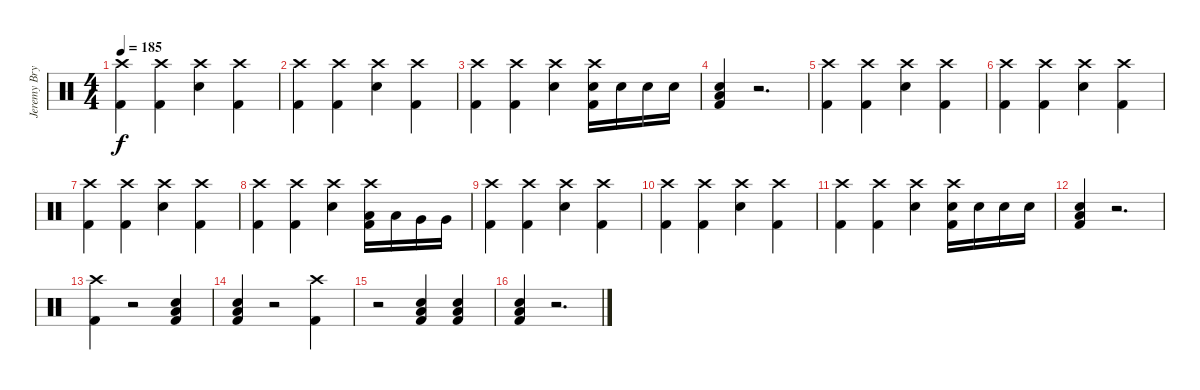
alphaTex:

\track ("Jeremy Bryan - Drums" "Jeremy Bry") {instrument percussion}
\staff {score}
\articulation defaults
\ts (4 4)
\tempo 185
\clef neutral
\ks c
("Crash high (hit)" "Kick (hit) 2").4{dy f} ("Crash high (hit)" "Kick (hit) 2").4 ("Crash high (hit)" "Electric Snare (hit)").4 ("Crash high (hit)" "Kick (hit) 2").4 |
("Crash high (hit)" "Kick (hit) 2").4 ("Crash high (hit)" "Kick (hit) 2").4 ("Crash high (hit)" "Electric Snare (hit)").4 ("Crash high (hit)" "Kick (hit) 2").4 |
("Crash high (hit)" "Kick (hit) 2").4 ("Crash high (hit)" "Kick (hit) 2").4 ("Crash high (hit)" "Electric Snare (hit)").4 ("Crash high (hit)" "Electric Snare (hit)" "Kick (hit) 2").16 "Electric Snare (hit)".16 "Electric Snare (hit)".16 "Electric Snare (hit)".16 |
("Low Floor Tom (hit)" "Electric Snare (hit)" "Kick (hit) 2").4 r.2{d} |
("Crash high (hit)" "Kick (hit) 2").4 ("Crash high (hit)" "Kick (hit) 2").4 ("Crash high (hit)" "Electric Snare (hit)").4 ("Crash high (hit)" "Kick (hit) 2").4 |
("Crash high (hit)" "Kick (hit) 2").4 ("Crash high (hit)" "Kick (hit) 2").4 ("Crash high (hit)" "Electric Snare (hit)").4 ("Crash high (hit)" "Kick (hit) 2").4 |
("Crash high (hit)" "Kick (hit) 2").4 ("Crash high (hit)" "Kick (hit) 2").4 ("Crash high (hit)" "Electric Snare (hit)").4 ("Crash high (hit)" "Kick (hit) 2").4 |
("Crash high (hit)" "Kick (hit) 2").4 ("Crash high (hit)" "Kick (hit) 2").4 ("Crash high (hit)" "Electric Snare (hit)").4 ("Crash high (hit)" "Low Tom (hit)" "Kick (hit) 2").16 "Low Tom (hit)".16 "Very Low Tom (hit)".16 "Very Low Tom (hit)".16 |
("Crash high (hit)" "Kick (hit) 2").4 ("Crash high (hit)" "Kick (hit) 2").4 ("Crash high (hit)" "Electric Snare (hit)").4 ("Crash high (hit)" "Kick (hit) 2").4 |
("Crash high (hit)" "Kick (hit) 2").4 ("Crash high (hit)" "Kick (hit) 2").4 ("Crash high (hit)" "Electric Snare (hit)").4 ("Crash high (hit)" "Kick (hit) 2").4 |
("Crash high (hit)" "Kick (hit) 2").4 ("Crash high (hit)" "Kick (hit) 2").4 ("Crash high (hit)" "Electric Snare (hit)").4 ("Crash high (hit)" "Electric Snare (hit)" "Kick (hit) 2").16 "Electric Snare (hit)".16 "Electric Snare (hit)".16 "Electric Snare (hit)".16 |
("Low Floor Tom (hit)" "Electric Snare (hit)" "Kick (hit) 2").4 r.2{d} |
("Crash high (hit)" "Kick (hit) 2").4 r.2 ("Low Floor Tom (hit)" "Electric Snare (hit)" "Kick (hit) 2").4 |
("Low Floor Tom (hit)" "Electric Snare (hit)" "Kick (hit) 2").4 r.2 ("Crash high (hit)" "Kick (hit) 2").4 |
r.2 ("Low Floor Tom (hit)" "Electric Snare (hit)" "Kick (hit) 2").4 ("Low Floor Tom (hit)" "Electric Snare (hit)" "Kick (hit) 2").4 |
("Low Floor Tom (hit)" "Electric Snare (hit)" "Kick (hit) 2").4 r.2{d}
